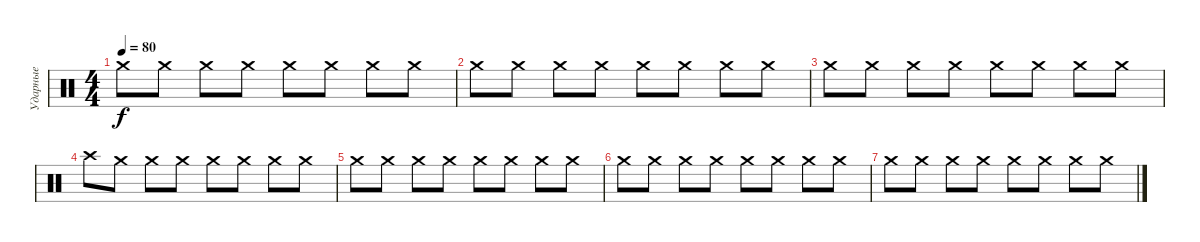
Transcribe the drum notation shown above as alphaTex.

\track ("Ударные" "Ударные") {instrument percussion}
\staff {score}
\articulation defaults
\ts (4 4)
\tempo 80
\clef neutral
\ks c "Crash medium (hit)".8{dy f} "Crash medium (hit)".8 "Crash medium (hit)".8 "Crash medium (hit)".8 "Crash medium (hit)".8 "Crash medium (hit)".8 "Crash medium (hit)".8 "Crash medium (hit)".8
|
"Crash medium (hit)".8 "Crash medium (hit)".8 "Crash medium (hit)".8 "Crash medium (hit)".8 "Crash medium (hit)".8 "Crash medium (hit)".8 "Crash medium (hit)".8 "Crash medium (hit)".8 |
"Crash medium (hit)".8 "Crash medium (hit)".8 "Crash medium (hit)".8 "Crash medium (hit)".8 "Crash medium (hit)".8 "Crash medium (hit)".8 "Crash medium (hit)".8 "Crash medium (hit)".8 |
"Crash high (hit)".8 "Crash medium (hit)".8 "Crash medium (hit)".8 "Crash medium (hit)".8 "Crash medium (hit)".8 "Crash medium (hit)".8 "Crash medium (hit)".8 "Crash medium (hit)".8 |
"Crash medium (hit)".8 "Crash medium (hit)".8 "Crash medium (hit)".8 "Crash medium (hit)".8 "Crash medium (hit)".8 "Crash medium (hit)".8 "Crash medium (hit)".8 "Crash medium (hit)".8 |
"Crash medium (hit)".8 "Crash medium (hit)".8 "Crash medium (hit)".8 "Crash medium (hit)".8 "Crash medium (hit)".8 "Crash medium (hit)".8 "Crash medium (hit)".8 "Crash medium (hit)".8 |
"Crash medium (hit)".8 "Crash medium (hit)".8 "Crash medium (hit)".8 "Crash medium (hit)".8 "Crash medium (hit)".8 "Crash medium (hit)".8 "Crash medium (hit)".8 "Crash medium (hit)".8
